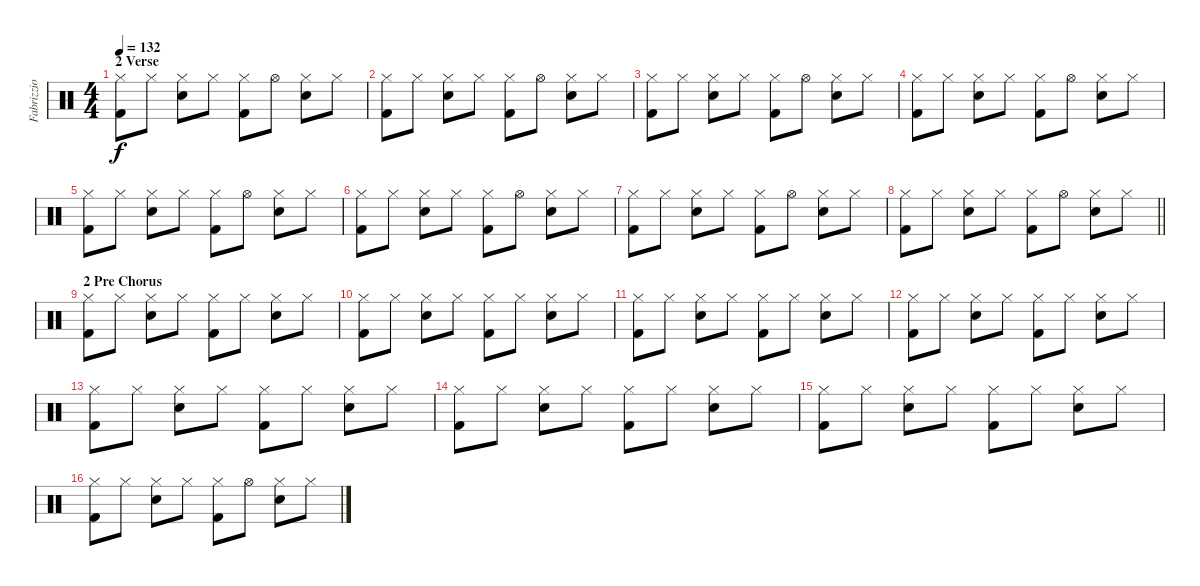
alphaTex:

\track ("Fabrizzio" "Fabrizzio") {instrument percussion}
\staff {score}
\articulation defaults
\ts (4 4)
\section ("" "2 Verse")
\tempo 132
\clef neutral
\ks c
("Hi-Hat (closed)" "Kick (hit) 2").8{dy f} "Hi-Hat (closed)".8 ("Hi-Hat (closed)" "Snare (hit) 2").8 "Hi-Hat (closed)".8 ("Hi-Hat (closed)" "Kick (hit) 2").8 "Hi-Hat (open)".8 ("Hi-Hat (closed)" "Snare (hit) 2").8 "Hi-Hat (closed)".8 |
("Hi-Hat (closed)" "Kick (hit) 2").8 "Hi-Hat (closed)".8 ("Hi-Hat (closed)" "Snare (hit) 2").8 "Hi-Hat (closed)".8 ("Hi-Hat (closed)" "Kick (hit) 2").8 "Hi-Hat (open)".8 ("Hi-Hat (closed)" "Snare (hit) 2").8 "Hi-Hat (closed)".8 |
("Hi-Hat (closed)" "Kick (hit) 2").8 "Hi-Hat (closed)".8 ("Hi-Hat (closed)" "Snare (hit) 2").8 "Hi-Hat (closed)".8 ("Hi-Hat (closed)" "Kick (hit) 2").8 "Hi-Hat (open)".8 ("Hi-Hat (closed)" "Snare (hit) 2").8 "Hi-Hat (closed)".8 |
("Hi-Hat (closed)" "Kick (hit) 2").8 "Hi-Hat (closed)".8 ("Hi-Hat (closed)" "Snare (hit) 2").8 "Hi-Hat (closed)".8 ("Hi-Hat (closed)" "Kick (hit) 2").8 "Hi-Hat (open)".8 ("Hi-Hat (closed)" "Snare (hit) 2").8 "Hi-Hat (closed)".8 |
("Hi-Hat (closed)" "Kick (hit) 2").8 "Hi-Hat (closed)".8 ("Hi-Hat (closed)" "Snare (hit) 2").8 "Hi-Hat (closed)".8 ("Hi-Hat (closed)" "Kick (hit) 2").8 "Hi-Hat (open)".8 ("Hi-Hat (closed)" "Snare (hit) 2").8 "Hi-Hat (closed)".8 |
("Hi-Hat (closed)" "Kick (hit) 2").8 "Hi-Hat (closed)".8 ("Hi-Hat (closed)" "Snare (hit) 2").8 "Hi-Hat (closed)".8 ("Hi-Hat (closed)" "Kick (hit) 2").8 "Hi-Hat (open)".8 ("Hi-Hat (closed)" "Snare (hit) 2").8 "Hi-Hat (closed)".8 |
("Hi-Hat (closed)" "Kick (hit) 2").8 "Hi-Hat (closed)".8 ("Hi-Hat (closed)" "Snare (hit) 2").8 "Hi-Hat (closed)".8 ("Hi-Hat (closed)" "Kick (hit) 2").8 "Hi-Hat (open)".8 ("Hi-Hat (closed)" "Snare (hit) 2").8 "Hi-Hat (closed)".8 |
\barLineRight lightlight
("Hi-Hat (closed)" "Kick (hit) 2").8 "Hi-Hat (closed)".8 ("Hi-Hat (closed)" "Snare (hit) 2").8 "Hi-Hat (closed)".8 ("Hi-Hat (closed)" "Kick (hit) 2").8 "Hi-Hat (open)".8 ("Hi-Hat (closed)" "Snare (hit) 2").8 "Hi-Hat (closed)".8 |
\section ("" "2 Pre Chorus")
("Hi-Hat (closed)" "Kick (hit) 2").8 "Hi-Hat (closed)".8 ("Hi-Hat (closed)" "Snare (hit) 2").8 "Hi-Hat (closed)".8 ("Hi-Hat (closed)" "Kick (hit) 2").8 "Hi-Hat (closed)".8 ("Hi-Hat (closed)" "Snare (hit) 2").8 "Hi-Hat (closed)".8 |
("Hi-Hat (closed)" "Kick (hit) 2").8 "Hi-Hat (closed)".8 ("Hi-Hat (closed)" "Snare (hit) 2").8 "Hi-Hat (closed)".8 ("Hi-Hat (closed)" "Kick (hit) 2").8 "Hi-Hat (closed)".8 ("Hi-Hat (closed)" "Snare (hit) 2").8 "Hi-Hat (closed)".8 |
("Hi-Hat (closed)" "Kick (hit) 2").8 "Hi-Hat (closed)".8 ("Hi-Hat (closed)" "Snare (hit) 2").8 "Hi-Hat (closed)".8 ("Hi-Hat (closed)" "Kick (hit) 2").8 "Hi-Hat (closed)".8 ("Hi-Hat (closed)" "Snare (hit) 2").8 "Hi-Hat (closed)".8 |
("Hi-Hat (closed)" "Kick (hit) 2").8 "Hi-Hat (closed)".8 ("Hi-Hat (closed)" "Snare (hit) 2").8 "Hi-Hat (closed)".8 ("Hi-Hat (closed)" "Kick (hit) 2").8 "Hi-Hat (closed)".8 ("Hi-Hat (closed)" "Snare (hit) 2").8 "Hi-Hat (closed)".8 |
("Hi-Hat (closed)" "Kick (hit) 2").8 "Hi-Hat (closed)".8 ("Hi-Hat (closed)" "Snare (hit) 2").8 "Hi-Hat (closed)".8 ("Hi-Hat (closed)" "Kick (hit) 2").8 "Hi-Hat (closed)".8 ("Hi-Hat (closed)" "Snare (hit) 2").8 "Hi-Hat (closed)".8 |
("Hi-Hat (closed)" "Kick (hit) 2").8 "Hi-Hat (closed)".8 ("Hi-Hat (closed)" "Snare (hit) 2").8 "Hi-Hat (closed)".8 ("Hi-Hat (closed)" "Kick (hit) 2").8 "Hi-Hat (closed)".8 ("Hi-Hat (closed)" "Snare (hit) 2").8 "Hi-Hat (closed)".8 |
("Hi-Hat (closed)" "Kick (hit) 2").8 "Hi-Hat (closed)".8 ("Hi-Hat (closed)" "Snare (hit) 2").8 "Hi-Hat (closed)".8 ("Hi-Hat (closed)" "Kick (hit) 2").8 "Hi-Hat (closed)".8 ("Hi-Hat (closed)" "Snare (hit) 2").8 "Hi-Hat (closed)".8 |
("Hi-Hat (closed)" "Kick (hit) 2").8 "Hi-Hat (closed)".8 ("Hi-Hat (closed)" "Snare (hit) 2").8 "Hi-Hat (closed)".8 ("Hi-Hat (closed)" "Kick (hit) 2").8 "Hi-Hat (open)".8 ("Hi-Hat (closed)" "Snare (hit) 2").8 "Hi-Hat (closed)".8
